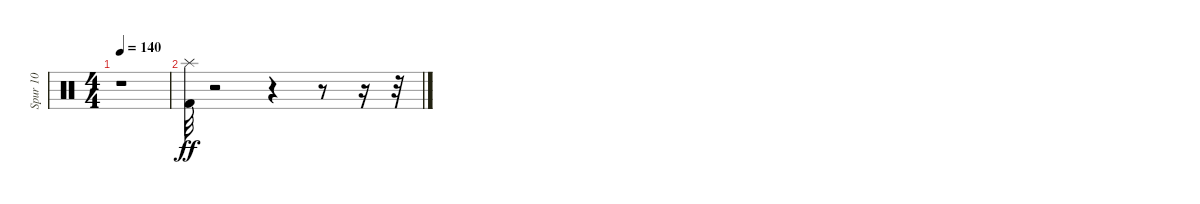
\track ("Spur 10" "Spur 10") {instrument percussion}
\staff {score}
\articulation defaults
\ts (4 4)
\tempo 140
\clef neutral
\ks c
r.1{dy p} |
("Kick (hit) 2" "Splash (hit)").32{dy ff} r.2 r.4 r.8 r.16 r.32
